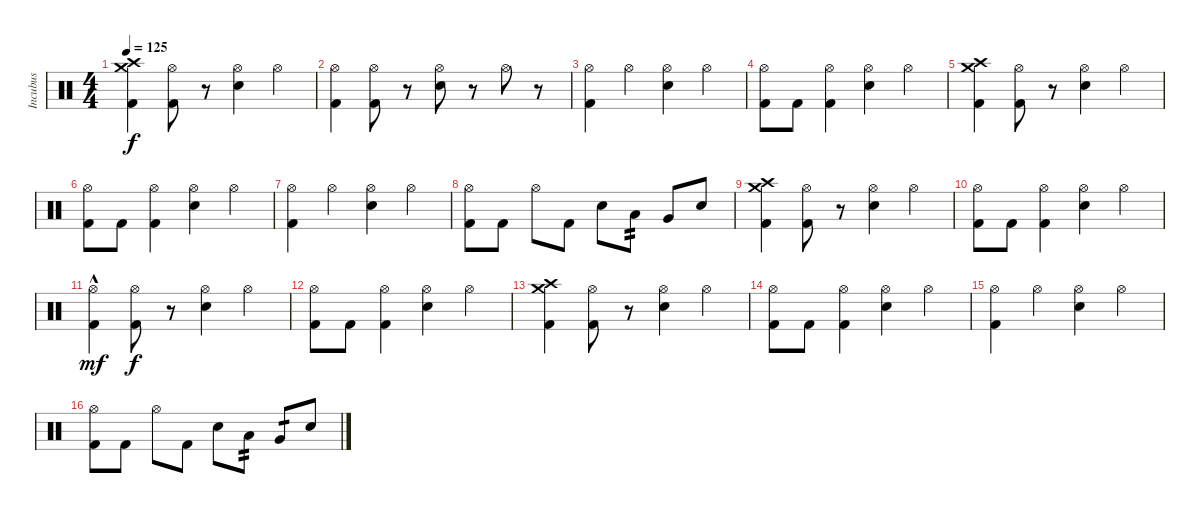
\track ("Incubus" "Incubus") {instrument percussion}
\staff {score}
\articulation defaults
\ts (4 4)
\tempo 125
\clef neutral
\ks c
("Crash high (hit)" "Crash medium (hit)" "Kick (hit) 2").4{dy f} ("Hi-Hat (open)" "Kick (hit) 2").8 r.8 ("Hi-Hat (open)" "Snare (hit) 2").4 "Hi-Hat (open)".4 |
("Hi-Hat (open)" "Kick (hit) 2").4 ("Hi-Hat (open)" "Kick (hit) 2").8 r.8 ("Hi-Hat (open)" "Snare (hit) 2").8 r.8 "Hi-Hat (open)".8 r.8 |
("Hi-Hat (open)" "Kick (hit) 2").4 "Hi-Hat (open)".4 ("Hi-Hat (open)" "Snare (hit) 2").4 "Hi-Hat (open)".4 |
("Hi-Hat (open)" "Kick (hit) 2").8 "Kick (hit) 2".8 ("Hi-Hat (open)" "Kick (hit) 2").4 ("Hi-Hat (open)" "Snare (hit) 2").4 "Hi-Hat (open)".4 |
("Crash high (hit)" "Crash medium (hit)" "Kick (hit) 2").4 ("Hi-Hat (open)" "Kick (hit) 2").8 r.8 ("Hi-Hat (open)" "Snare (hit) 2").4 "Hi-Hat (open)".4 |
("Hi-Hat (open)" "Kick (hit) 2").8 "Kick (hit) 2".8 ("Hi-Hat (open)" "Kick (hit) 2").4 ("Hi-Hat (open)" "Snare (hit) 2").4 "Hi-Hat (open)".4 |
("Hi-Hat (open)" "Kick (hit) 2").4 "Hi-Hat (open)".4 ("Hi-Hat (open)" "Snare (hit) 2").4 "Hi-Hat (open)".4 |
("Hi-Hat (open)" "Kick (hit) 2").8 "Kick (hit) 2".8 "Hi-Hat (open)".8 "Kick (hit) 2".8 "Snare (hit) 2".8 "Low Floor Tom (hit)".8{tp 2} "Very Low Tom (hit)".8 "Snare (hit) 2".8 |
("Crash high (hit)" "Crash medium (hit)" "Kick (hit) 2").4 ("Hi-Hat (open)" "Kick (hit) 2").8 r.8 ("Hi-Hat (open)" "Snare (hit) 2").4 "Hi-Hat (open)".4 |
("Hi-Hat (open)" "Kick (hit) 2").8 "Kick (hit) 2".8 ("Hi-Hat (open)" "Kick (hit) 2").4 ("Hi-Hat (open)" "Snare (hit) 2").4 "Hi-Hat (open)".4 |
("Hi-Hat (open)"{hac} "Kick (hit) 2").4{dy mf} ("Hi-Hat (open)" "Kick (hit) 2").8{dy f} r.8 ("Hi-Hat (open)" "Snare (hit) 2").4 "Hi-Hat (open)".4 |
("Hi-Hat (open)" "Kick (hit) 2").8 "Kick (hit) 2".8 ("Hi-Hat (open)" "Kick (hit) 2").4 ("Hi-Hat (open)" "Snare (hit) 2").4 "Hi-Hat (open)".4 |
("Crash high (hit)" "Crash medium (hit)" "Kick (hit) 2").4 ("Hi-Hat (open)" "Kick (hit) 2").8 r.8 ("Hi-Hat (open)" "Snare (hit) 2").4 "Hi-Hat (open)".4 |
("Hi-Hat (open)" "Kick (hit) 2").8 "Kick (hit) 2".8 ("Hi-Hat (open)" "Kick (hit) 2").4 ("Hi-Hat (open)" "Snare (hit) 2").4 "Hi-Hat (open)".4 |
("Hi-Hat (open)" "Kick (hit) 2").4 "Hi-Hat (open)".4 ("Hi-Hat (open)" "Snare (hit) 2").4 "Hi-Hat (open)".4 |
("Hi-Hat (open)" "Kick (hit) 2").8 "Kick (hit) 2".8 "Hi-Hat (open)".8 "Kick (hit) 2".8 "Snare (hit) 2".8 "Low Floor Tom (hit)".8{tp 2} "Very Low Tom (hit)".8{tp 1} "Snare (hit) 2".8
